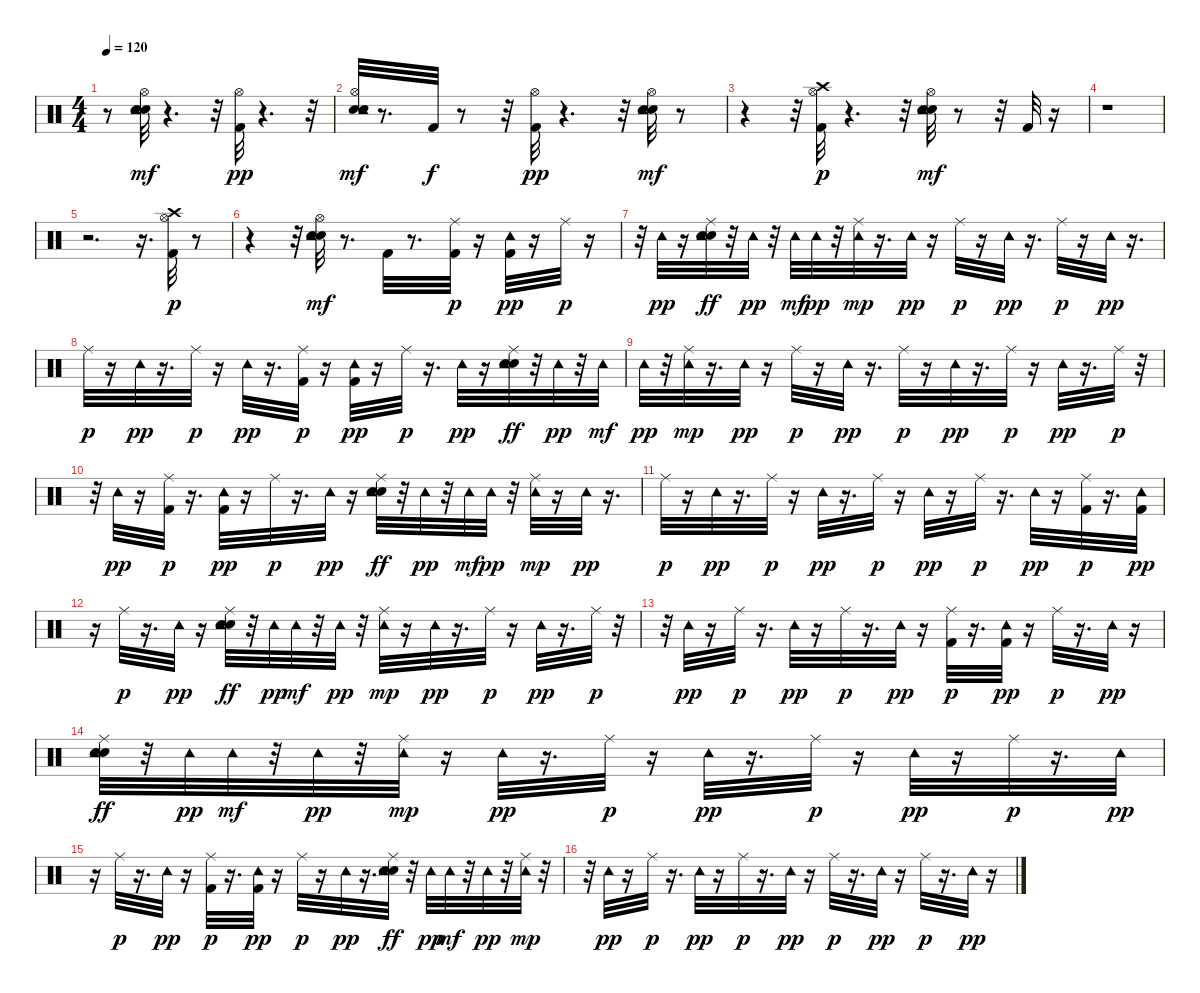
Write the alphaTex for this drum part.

\track "" {instrument percussion}
\staff {score}
\articulation defaults
\ts (4 4)
\tempo 120
\clef neutral
\ks c
r.8{dy pp} ("Snare (hit) 2" "Electric Snare (hit)" "Hi-Hat (open)" "Tambourine (hit)").32{dy mf} r.4{d} r.32 ("Kick (hit) 2" "Hi-Hat (open)").32{dy pp} r.4{d} r.32 |
("Snare (hit) 2" "Electric Snare (hit)" "Hi-Hat (open)" "Tambourine (hit)").32{dy mf} r.8{d} "Kick (hit) 2".32{dy f} r.8 r.32 ("Kick (hit) 2" "Hi-Hat (open)").32{dy pp} r.4{d} r.32 ("Snare (hit) 2" "Electric Snare (hit)" "Hi-Hat (open)" "Tambourine (hit)").32{dy mf} r.8 |
r.4 r.32 ("Kick (hit) 2" "Hi-Hat (open)" "Crash high (hit)").32{dy p} r.4{d} r.32 ("Snare (hit) 2" "Electric Snare (hit)" "Hi-Hat (open)" "Tambourine (hit)").32{dy mf} r.8 r.32 "Kick (hit) 2".32 r.16 |
r.1 |
r.2{d} r.16{d} ("Kick (hit) 2" "Hi-Hat (open)" "Crash high (hit)").32{dy p volume 11} r.8 |
r.4 r.32 ("Snare (hit) 2" "Electric Snare (hit)" "Hi-Hat (open)" "Tambourine (hit)").32{dy mf} r.8{d} "Kick (hit) 2".32 r.8{d} ("Kick (hit) 2" "Ride (middle)").32{dy p} r.16 ("Kick (hit) 2" "Tambourine (hit)").32{dy pp} r.16 "Ride (middle)".32{dy p} r.16 |
r.32 "Tambourine (hit)".32{dy pp} r.16 ("Snare (hit) 2" "Electric Snare (hit)" "Ride (middle)" "Tambourine (hit)").32{dy ff} r.32 "Tambourine (hit)".32{dy pp} r.32 "Tambourine (hit)".32{dy mf} "Tambourine (hit)".32{dy pp} r.32 ("Ride (middle)" "Tambourine (hit)").32{dy mp} r.16{d} "Tambourine (hit)".32{dy pp} r.16 "Ride (middle)".32{dy p} r.16 "Tambourine (hit)".32{dy pp} r.16{d} "Ride (middle)".32{dy p} r.16 "Tambourine (hit)".32{dy pp} r.16{d} |
"Ride (middle)".32{dy p} r.16 "Tambourine (hit)".32{dy pp} r.16{d} "Ride (middle)".32{dy p} r.16 "Tambourine (hit)".32{dy pp} r.16{d} ("Kick (hit) 2" "Ride (middle)").32{dy p} r.16 ("Kick (hit) 2" "Tambourine (hit)").32{dy pp} r.16 "Ride (middle)".32{dy p} r.16{d} "Tambourine (hit)".32{dy pp} r.16 ("Snare (hit) 2" "Electric Snare (hit)" "Ride (middle)" "Tambourine (hit)").32{dy ff} r.32 "Tambourine (hit)".32{dy pp} r.32 "Tambourine (hit)".32{dy mf} |
"Tambourine (hit)".32{dy pp} r.32 ("Ride (middle)" "Tambourine (hit)").32{dy mp} r.16{d} "Tambourine (hit)".32{dy pp} r.16 "Ride (middle)".32{dy p} r.16 "Tambourine (hit)".32{dy pp} r.16{d} "Ride (middle)".32{dy p} r.16 "Tambourine (hit)".32{dy pp} r.16{d} "Ride (middle)".32{dy p} r.16 "Tambourine (hit)".32{dy pp} r.16{d} "Ride (middle)".32{dy p} r.32 |
r.32 "Tambourine (hit)".32{dy pp} r.16 ("Kick (hit) 2" "Ride (middle)").32{dy p} r.16{d} ("Kick (hit) 2" "Tambourine (hit)").32{dy pp} r.16 "Ride (middle)".32{dy p} r.16{d} "Tambourine (hit)".32{dy pp} r.16 ("Snare (hit) 2" "Electric Snare (hit)" "Ride (middle)" "Tambourine (hit)").32{dy ff} r.32 "Tambourine (hit)".32{dy pp} r.32 "Tambourine (hit)".32{dy mf} "Tambourine (hit)".32{dy pp} r.32 ("Ride (middle)" "Tambourine (hit)").32{dy mp} r.16 "Tambourine (hit)".32{dy pp} r.16{d} |
"Ride (middle)".32{dy p} r.16 "Tambourine (hit)".32{dy pp} r.16{d} "Ride (middle)".32{dy p} r.16 "Tambourine (hit)".32{dy pp} r.16{d} "Ride (middle)".32{dy p} r.16 "Tambourine (hit)".32{dy pp} r.16 "Ride (middle)".32{dy p} r.16{d} "Tambourine (hit)".32{dy pp} r.16 ("Kick (hit) 2" "Ride (middle)").32{dy p} r.16{d} ("Kick (hit) 2" "Tambourine (hit)").32{dy pp} |
r.16 "Ride (middle)".32{dy p} r.16{d} "Tambourine (hit)".32{dy pp} r.16 ("Snare (hit) 2" "Electric Snare (hit)" "Ride (middle)" "Tambourine (hit)").32{dy ff} r.32 "Tambourine (hit)".32{dy pp} "Tambourine (hit)".32{dy mf} r.32 "Tambourine (hit)".32{dy pp} r.32 ("Ride (middle)" "Tambourine (hit)").32{dy mp} r.16 "Tambourine (hit)".32{dy pp} r.16{d} "Ride (middle)".32{dy p} r.16 "Tambourine (hit)".32{dy pp} r.16{d} "Ride (middle)".32{dy p} r.32 |
r.32 "Tambourine (hit)".32{dy pp} r.16 "Ride (middle)".32{dy p} r.16{d} "Tambourine (hit)".32{dy pp} r.16 "Ride (middle)".32{dy p} r.16{d} "Tambourine (hit)".32{dy pp} r.16 ("Kick (hit) 2" "Ride (middle)").32{dy p} r.16{d} ("Kick (hit) 2" "Tambourine (hit)").32{dy pp} r.16 "Ride (middle)".32{dy p} r.16{d} "Tambourine (hit)".32{dy pp} r.16 |
("Snare (hit) 2" "Electric Snare (hit)" "Ride (middle)" "Tambourine (hit)").32{dy ff} r.32 "Tambourine (hit)".32{dy pp} "Tambourine (hit)".32{dy mf} r.32 "Tambourine (hit)".32{dy pp} r.32 ("Ride (middle)" "Tambourine (hit)").32{dy mp} r.16 "Tambourine (hit)".32{dy pp} r.16{d} "Ride (middle)".32{dy p} r.16 "Tambourine (hit)".32{dy pp} r.16{d} "Ride (middle)".32{dy p} r.16 "Tambourine (hit)".32{dy pp} r.16 "Ride (middle)".32{dy p} r.16{d} "Tambourine (hit)".32{dy pp} |
r.16 "Ride (middle)".32{dy p} r.16{d} "Tambourine (hit)".32{dy pp} r.16 ("Kick (hit) 2" "Ride (middle)").32{dy p} r.16{d} ("Kick (hit) 2" "Tambourine (hit)").32{dy pp} r.16 "Ride (middle)".32{dy p} r.16 "Tambourine (hit)".32{dy pp} r.16{d} ("Snare (hit) 2" "Electric Snare (hit)" "Ride (middle)" "Tambourine (hit)").32{dy ff} r.32 "Tambourine (hit)".32{dy pp} "Tambourine (hit)".32{dy mf} r.32 "Tambourine (hit)".32{dy pp} r.32 ("Ride (middle)" "Tambourine (hit)").32{dy mp} r.32 |
r.32 "Tambourine (hit)".32{dy pp} r.16 "Ride (middle)".32{dy p} r.16{d} "Tambourine (hit)".32{dy pp} r.16 "Ride (middle)".32{dy p} r.16{d} "Tambourine (hit)".32{dy pp} r.16 "Ride (middle)".32{dy p} r.16{d} "Tambourine (hit)".32{dy pp} r.16 "Ride (middle)".32{dy p} r.16{d} "Tambourine (hit)".32{dy pp} r.16
